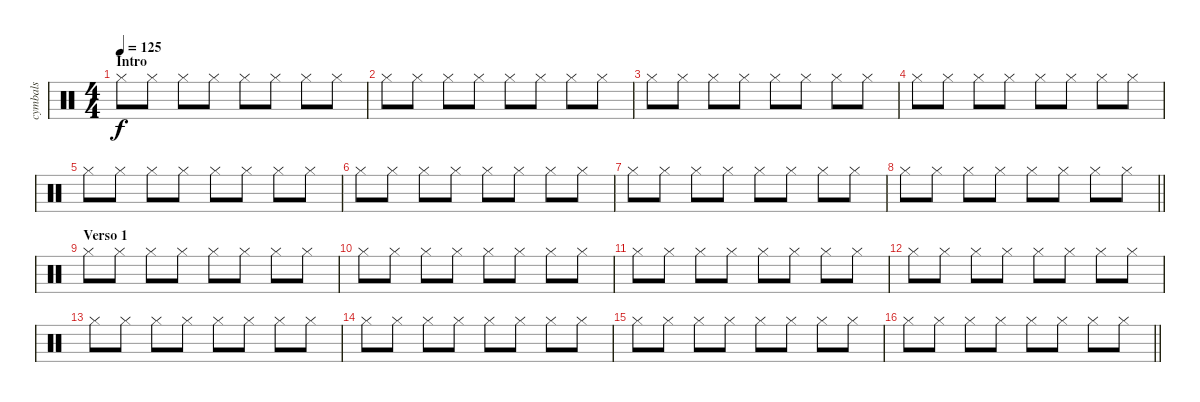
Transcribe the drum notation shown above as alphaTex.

\track ("cymbals" "cymbals") {instrument percussion}
\staff {score}
\articulation defaults
\ts (4 4)
\section ("" "Intro")
\tempo 125
\clef neutral
\ks c "Hi-Hat (closed)".8{dy f} "Hi-Hat (closed)".8 "Hi-Hat (closed)".8 "Hi-Hat (closed)".8 "Hi-Hat (closed)".8 "Hi-Hat (closed)".8 "Hi-Hat (closed)".8 "Hi-Hat (closed)".8
|
"Hi-Hat (closed)".8 "Hi-Hat (closed)".8 "Hi-Hat (closed)".8 "Hi-Hat (closed)".8 "Hi-Hat (closed)".8 "Hi-Hat (closed)".8 "Hi-Hat (closed)".8 "Hi-Hat (closed)".8 |
"Hi-Hat (closed)".8 "Hi-Hat (closed)".8 "Hi-Hat (closed)".8 "Hi-Hat (closed)".8 "Hi-Hat (closed)".8 "Hi-Hat (closed)".8 "Hi-Hat (closed)".8 "Hi-Hat (closed)".8 |
"Hi-Hat (closed)".8 "Hi-Hat (closed)".8 "Hi-Hat (closed)".8 "Hi-Hat (closed)".8 "Hi-Hat (closed)".8 "Hi-Hat (closed)".8 "Hi-Hat (closed)".8 "Hi-Hat (closed)".8 |
"Hi-Hat (closed)".8 "Hi-Hat (closed)".8 "Hi-Hat (closed)".8 "Hi-Hat (closed)".8 "Hi-Hat (closed)".8 "Hi-Hat (closed)".8 "Hi-Hat (closed)".8 "Hi-Hat (closed)".8 |
"Hi-Hat (closed)".8 "Hi-Hat (closed)".8 "Hi-Hat (closed)".8 "Hi-Hat (closed)".8 "Hi-Hat (closed)".8 "Hi-Hat (closed)".8 "Hi-Hat (closed)".8 "Hi-Hat (closed)".8 |
"Hi-Hat (closed)".8 "Hi-Hat (closed)".8 "Hi-Hat (closed)".8 "Hi-Hat (closed)".8 "Hi-Hat (closed)".8 "Hi-Hat (closed)".8 "Hi-Hat (closed)".8 "Hi-Hat (closed)".8 |
\barLineRight lightlight "Hi-Hat (closed)".8 "Hi-Hat (closed)".8 "Hi-Hat (closed)".8 "Hi-Hat (closed)".8 "Hi-Hat (closed)".8 "Hi-Hat (closed)".8 "Hi-Hat (closed)".8 "Hi-Hat (closed)".8
|
\section ("" "Verso 1")
"Hi-Hat (closed)".8 "Hi-Hat (closed)".8 "Hi-Hat (closed)".8 "Hi-Hat (closed)".8 "Hi-Hat (closed)".8 "Hi-Hat (closed)".8 "Hi-Hat (closed)".8 "Hi-Hat (closed)".8 |
"Hi-Hat (closed)".8 "Hi-Hat (closed)".8 "Hi-Hat (closed)".8 "Hi-Hat (closed)".8 "Hi-Hat (closed)".8 "Hi-Hat (closed)".8 "Hi-Hat (closed)".8 "Hi-Hat (closed)".8 |
"Hi-Hat (closed)".8 "Hi-Hat (closed)".8 "Hi-Hat (closed)".8 "Hi-Hat (closed)".8 "Hi-Hat (closed)".8 "Hi-Hat (closed)".8 "Hi-Hat (closed)".8 "Hi-Hat (closed)".8 |
"Hi-Hat (closed)".8 "Hi-Hat (closed)".8 "Hi-Hat (closed)".8 "Hi-Hat (closed)".8 "Hi-Hat (closed)".8 "Hi-Hat (closed)".8 "Hi-Hat (closed)".8 "Hi-Hat (closed)".8 |
"Hi-Hat (closed)".8 "Hi-Hat (closed)".8 "Hi-Hat (closed)".8 "Hi-Hat (closed)".8 "Hi-Hat (closed)".8 "Hi-Hat (closed)".8 "Hi-Hat (closed)".8 "Hi-Hat (closed)".8 |
"Hi-Hat (closed)".8 "Hi-Hat (closed)".8 "Hi-Hat (closed)".8 "Hi-Hat (closed)".8 "Hi-Hat (closed)".8 "Hi-Hat (closed)".8 "Hi-Hat (closed)".8 "Hi-Hat (closed)".8 |
"Hi-Hat (closed)".8 "Hi-Hat (closed)".8 "Hi-Hat (closed)".8 "Hi-Hat (closed)".8 "Hi-Hat (closed)".8 "Hi-Hat (closed)".8 "Hi-Hat (closed)".8 "Hi-Hat (closed)".8 |
\barLineRight lightlight "Hi-Hat (closed)".8 "Hi-Hat (closed)".8 "Hi-Hat (closed)".8 "Hi-Hat (closed)".8 "Hi-Hat (closed)".8 "Hi-Hat (closed)".8 "Hi-Hat (closed)".8 "Hi-Hat (closed)".8
